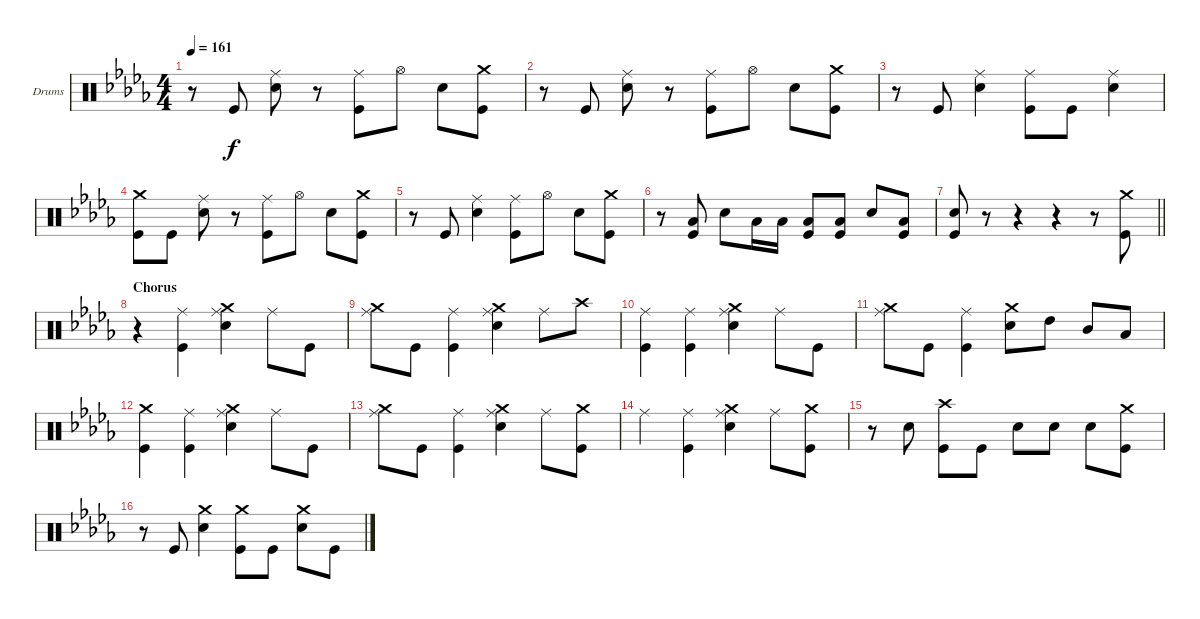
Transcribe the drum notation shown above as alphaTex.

\bracketExtendMode groupsimilarinstruments
\firstSystemTrackNameOrientation horizontal
\otherSystemsTrackNameOrientation horizontal
\track ("Drumkit" "Drums") {instrument percussion}
\staff {score}
\articulation defaults
\ts (4 4)
\tempo 161
\clef neutral
\ks db
r.8{dy f} "Kick (hit)".8 ("Ride (middle)" "Snare (hit) 2").8 r.8 ("Ride (middle)" "Kick (hit)").8 "Hi-Hat (open)".8 "Snare (hit) 2".8 ("Crash medium (hit)" "Kick (hit)").8 |
r.8 "Kick (hit)".8 ("Ride (middle)" "Snare (hit) 2").8 r.8 ("Ride (middle)" "Kick (hit)").8 "Hi-Hat (open)".8 "Snare (hit) 2".8 ("Crash medium (hit)" "Kick (hit)").8 |
r.8 "Kick (hit)".8 ("Ride (middle)" "Snare (hit) 2").4 ("Ride (middle)" "Kick (hit)").8 "Kick (hit)".8 ("Ride (middle)" "Snare (hit) 2").4 |
("Crash medium (hit)" "Kick (hit)").8 "Kick (hit)".8 ("Ride (middle)" "Snare (hit) 2").8 r.8 ("Ride (middle)" "Kick (hit)").8 "Hi-Hat (open)".8 "Snare (hit) 2".8 ("Crash medium (hit)" "Kick (hit)").8 |
r.8 "Kick (hit)".8 ("Ride (middle)" "Snare (hit) 2").4 ("Ride (middle)" "Kick (hit)").8 "Hi-Hat (open)".8 "Snare (hit) 2".8 ("Crash medium (hit)" "Kick (hit)").8 |
r.8 ("Low Tom (hit)" "Kick (hit)").8 "Snare (hit) 2".8 "Low Tom (hit)".16 "Low Tom (hit)".16 ("Low Tom (hit)" "Kick (hit)").8 ("Low Tom (hit)" "Kick (hit)").8 "Snare (hit) 2".8 ("Low Tom (hit)" "Kick (hit)").8 |
\barLineRight lightlight
("Kick (hit)" "Snare (hit) 2").8 r.8 r.4 r.4 r.8 ("Kick (hit)" "Crash medium (hit)").8 |
\section ("" "Chorus")
r.4 ("Kick (hit)" "Ride (middle)").4 ("Snare (hit) 2" "Crash medium (hit)" "Ride (middle)").4 "Ride (middle)".8 "Kick (hit)".8 |
("Crash medium (hit)" "Ride (middle)").8 "Kick (hit)".8 ("Kick (hit)" "Ride (middle)").4 ("Snare (hit) 2" "Crash medium (hit)" "Ride (middle)").4 "Ride (middle)".8 "Crash high (hit)".8 |
("Kick (hit)" "Ride (middle)").4 ("Kick (hit)" "Ride (middle)").4 ("Snare (hit) 2" "Crash medium (hit)" "Ride (middle)").4 "Ride (middle)".8 "Kick (hit)".8 |
("Crash medium (hit)" "Ride (middle)").8 "Kick (hit)".8 ("Kick (hit)" "Ride (middle)").4 ("Crash medium (hit)" "Snare (hit) 2").8 "High Tom (hit)".8 "Mid Tom (hit)".8 "Low Tom (hit)".8 |
("Kick (hit)" "Crash medium (hit)").4 ("Kick (hit)" "Ride (middle)").4 ("Snare (hit) 2" "Crash medium (hit)" "Ride (middle)").4 "Ride (middle)".8 "Kick (hit)".8 |
("Crash medium (hit)" "Ride (middle)").8 "Kick (hit)".8 ("Kick (hit)" "Ride (middle)").4 ("Snare (hit) 2" "Crash medium (hit)" "Ride (middle)").4 "Ride (middle)".8 ("Kick (hit)" "Crash medium (hit)").8 |
"Ride (middle)".4 ("Ride (middle)" "Kick (hit)").4 ("Snare (hit) 2" "Crash medium (hit)" "Ride (middle)").4 "Ride (middle)".8 ("Kick (hit)" "Crash medium (hit)").8 |
r.8 "Snare (hit) 2".8 ("Kick (hit)" "Crash high (hit)").8 "Kick (hit)".8 "Snare (hit) 2".8 "Snare (hit) 2".8 "Snare (hit) 2".8 ("Crash medium (hit)" "Kick (hit)").8 |
r.8 "Kick (hit)".8 ("Snare (hit) 2" "Crash medium (hit)").4 ("Kick (hit)" "Crash medium (hit)").8 "Kick (hit)".8 ("Snare (hit) 2" "Crash medium (hit)").8 "Kick (hit)".8
